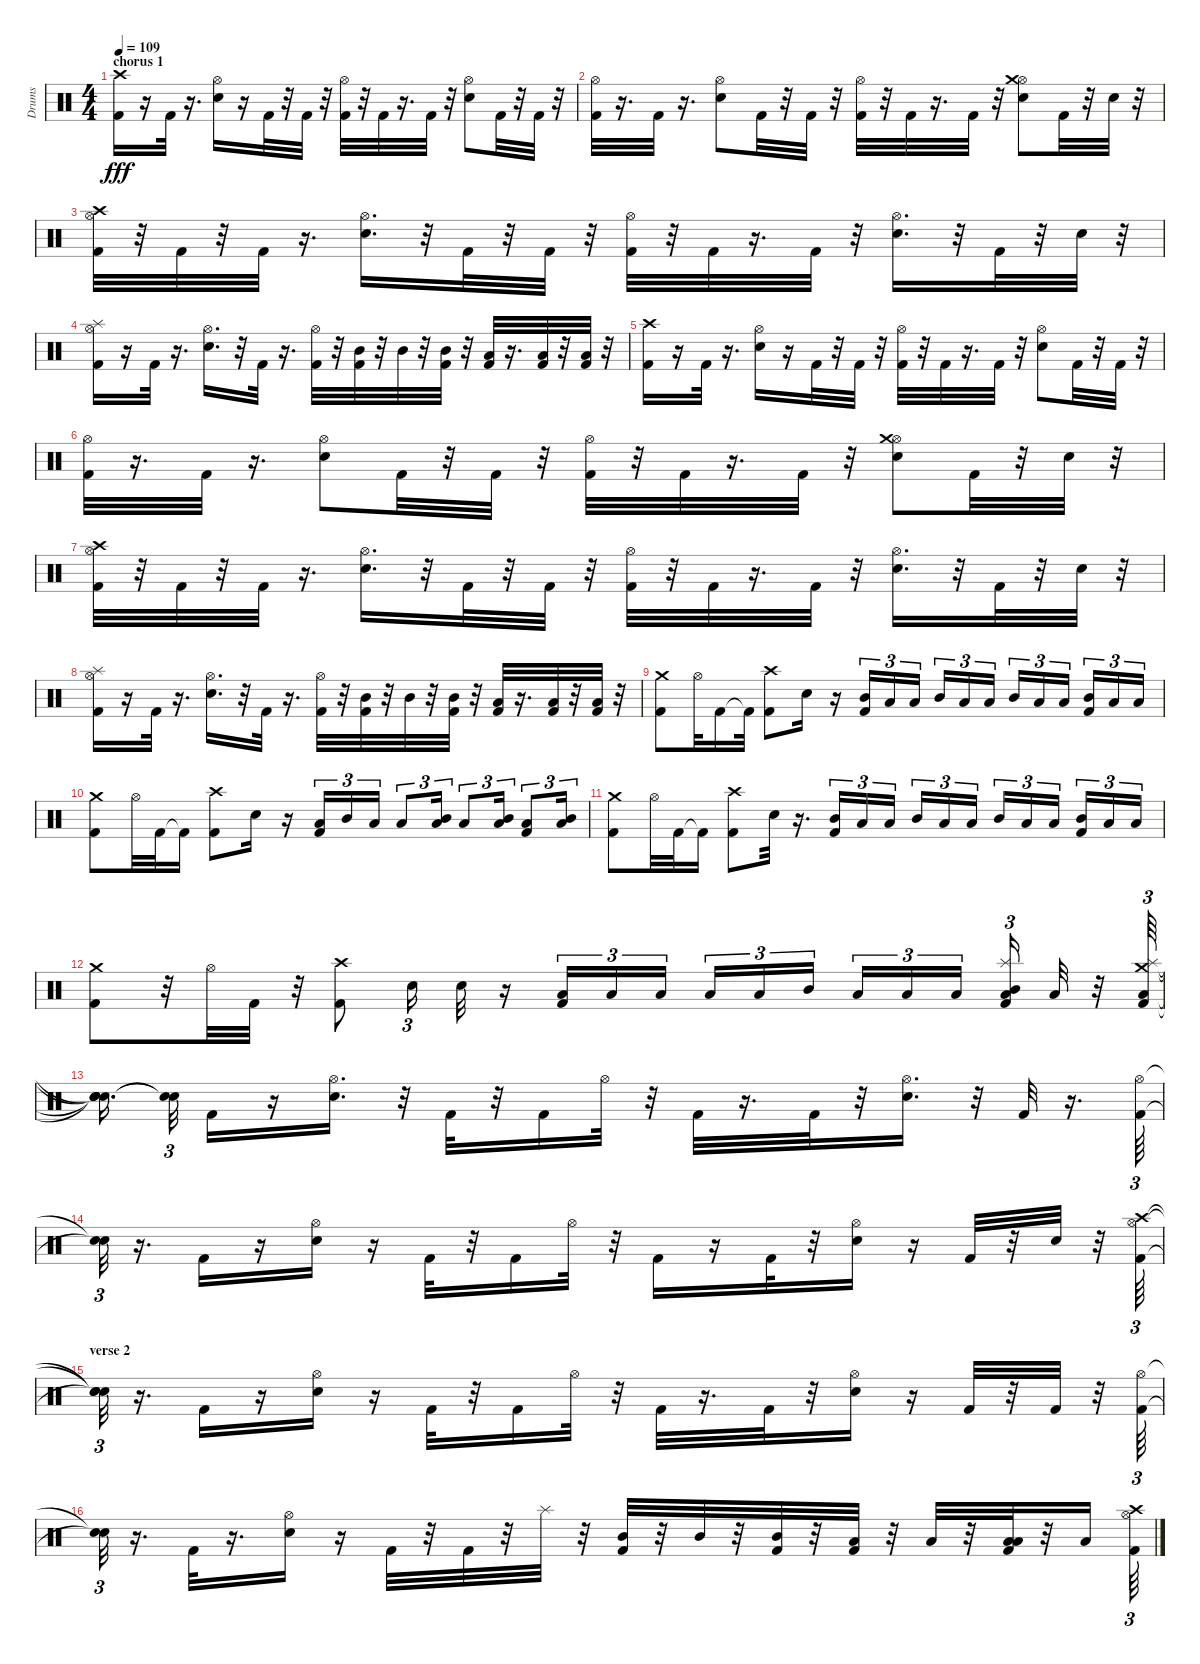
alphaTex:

\track ("Drums" "Drums") {instrument percussion}
\staff {score}
\articulation defaults
\ts (4 4)
\section ("" "chorus 1")
\tempo 109
\clef neutral
\ks c
("Kick (hit) 2" "Crash high (hit)").16{dy fff} r.16 "Kick (hit) 2".32 r.16{d} ("Snare (hit) 2" "Hi-Hat (open)").16 r.16 "Kick (hit) 2".32 r.32 "Kick (hit) 2".32 r.32 ("Kick (hit) 2" "Hi-Hat (open)").32 r.32 "Kick (hit) 2".32 r.16{d} "Kick (hit) 2".32 r.32 ("Snare (hit) 2" "Hi-Hat (open)").8 "Kick (hit) 2".32 r.32 "Kick (hit) 2".32 r.32 |
("Kick (hit) 2" "Hi-Hat (open)").32 r.16{d} "Kick (hit) 2".32 r.16{d} ("Snare (hit) 2" "Hi-Hat (open)").8 "Kick (hit) 2".32 r.32 "Kick (hit) 2".32 r.32 ("Kick (hit) 2" "Hi-Hat (open)").32 r.32 "Kick (hit) 2".32 r.16{d} "Kick (hit) 2".32 r.32 ("Snare (hit) 2" "Hi-Hat (open)" "Crash medium (hit)").8 "Kick (hit) 2".32 r.32 "Snare (hit) 2".32 r.32 |
("Kick (hit) 2" "Hi-Hat (open)" "Crash high (hit)").32 r.32 "Kick (hit) 2".32 r.32 "Kick (hit) 2".32 r.16{d} ("Snare (hit) 2" "Hi-Hat (open)").16{d} r.32 "Kick (hit) 2".32 r.32 "Kick (hit) 2".32 r.32 ("Kick (hit) 2" "Hi-Hat (open)").32 r.32 "Kick (hit) 2".32 r.16{d} "Kick (hit) 2".32 r.32 ("Snare (hit) 2" "Hi-Hat (open)").16{d} r.32 "Kick (hit) 2".32 r.32 "Snare (hit) 2".32 r.32 |
("Kick (hit) 2" "Hi-Hat (open)" "Splash (hit)").16 r.16 "Kick (hit) 2".32 r.16{d} ("Snare (hit) 2" "Hi-Hat (open)").16{d} r.32 "Kick (hit) 2".32 r.16{d} ("Kick (hit) 2" "Hi-Hat (open)").32 r.32 ("Kick (hit) 2" "Mid Tom (hit)").32 r.32 "Mid Tom (hit)".32 r.32 ("Kick (hit) 2" "Mid Tom (hit)").32 r.32 ("Kick (hit) 2" "Low Tom (hit)").32 r.16{d} ("Kick (hit) 2" "Low Floor Tom (hit)").32 r.32 ("Kick (hit) 2" "Low Floor Tom (hit)").32 r.32 |
("Kick (hit) 2" "Crash high (hit)").16 r.16 "Kick (hit) 2".32 r.16{d} ("Snare (hit) 2" "Hi-Hat (open)").16 r.16 "Kick (hit) 2".32 r.32 "Kick (hit) 2".32 r.32 ("Kick (hit) 2" "Hi-Hat (open)").32 r.32 "Kick (hit) 2".32 r.16{d} "Kick (hit) 2".32 r.32 ("Snare (hit) 2" "Hi-Hat (open)").8 "Kick (hit) 2".32 r.32 "Kick (hit) 2".32 r.32 |
("Kick (hit) 2" "Hi-Hat (open)").32 r.16{d} "Kick (hit) 2".32 r.16{d} ("Snare (hit) 2" "Hi-Hat (open)").8 "Kick (hit) 2".32 r.32 "Kick (hit) 2".32 r.32 ("Kick (hit) 2" "Hi-Hat (open)").32 r.32 "Kick (hit) 2".32 r.16{d} "Kick (hit) 2".32 r.32 ("Snare (hit) 2" "Hi-Hat (open)" "Crash medium (hit)").8 "Kick (hit) 2".32 r.32 "Snare (hit) 2".32 r.32 |
("Kick (hit) 2" "Hi-Hat (open)" "Crash high (hit)").32 r.32 "Kick (hit) 2".32 r.32 "Kick (hit) 2".32 r.16{d} ("Snare (hit) 2" "Hi-Hat (open)").16{d} r.32 "Kick (hit) 2".32 r.32 "Kick (hit) 2".32 r.32 ("Kick (hit) 2" "Hi-Hat (open)").32 r.32 "Kick (hit) 2".32 r.16{d} "Kick (hit) 2".32 r.32 ("Snare (hit) 2" "Hi-Hat (open)").16{d} r.32 "Kick (hit) 2".32 r.32 "Snare (hit) 2".32 r.32 |
("Kick (hit) 2" "Hi-Hat (open)" "Splash (hit)").16 r.16 "Kick (hit) 2".32 r.16{d} ("Snare (hit) 2" "Hi-Hat (open)").16{d} r.32 "Kick (hit) 2".32 r.16{d} ("Kick (hit) 2" "Hi-Hat (open)").32 r.32 ("Kick (hit) 2" "Mid Tom (hit)").32 r.32 "Mid Tom (hit)".32 r.32 ("Kick (hit) 2" "Mid Tom (hit)").32 r.32 ("Kick (hit) 2" "Low Tom (hit)").32 r.16{d} ("Kick (hit) 2" "Low Floor Tom (hit)").32 r.32 ("Kick (hit) 2" "Low Floor Tom (hit)").32 r.32 |
("Kick (hit) 2" "Crash medium (hit)").8 "Hi-Hat (open)".32 "Kick (hit) 2".16 "Kick (hit) 2"{t}.32 ("Kick (hit) 2" "Crash high (hit)").8 "Snare (hit) 2".16 r.16 ("Kick (hit) 2" "Mid Tom (hit)").16{tu (3 2)} "Low Tom (hit)".16{tu (3 2)} "Low Floor Tom (hit)".16{tu (3 2) beam splitsecondary} "Mid Tom (hit)".16{tu (3 2)} "Low Tom (hit)".16{tu (3 2)} "Low Floor Tom (hit)".16{tu (3 2)} "Mid Tom (hit)".16{tu (3 2)} "Low Tom (hit)".16{tu (3 2)} "Low Floor Tom (hit)".16{tu (3 2) beam splitsecondary} ("Kick (hit) 2" "Mid Tom (hit)").16{tu (3 2)} "Low Tom (hit)".16{tu (3 2)} "Low Floor Tom (hit)".16{tu (3 2)} |
("Kick (hit) 2" "Crash medium (hit)").8 "Hi-Hat (open)".32 "Kick (hit) 2".32 "Kick (hit) 2"{t}.16 ("Kick (hit) 2" "Crash high (hit)").8 "Snare (hit) 2".16 r.16 ("Kick (hit) 2" "Low Tom (hit)").16{tu (3 2)} "Mid Tom (hit)".16{tu (3 2)} "Low Floor Tom (hit)".16{tu (3 2)} "Low Tom (hit)".8{tu (3 2)} ("Low Floor Tom (hit)" "Mid Tom (hit)").16{tu (3 2)} "Low Tom (hit)".8{tu (3 2)} ("Low Floor Tom (hit)" "Mid Tom (hit)").16{tu (3 2)} ("Kick (hit) 2" "Low Tom (hit)").8{tu (3 2)} ("Low Floor Tom (hit)" "Mid Tom (hit)").16{tu (3 2)} |
("Kick (hit) 2" "Crash medium (hit)").8 "Hi-Hat (open)".32 "Kick (hit) 2".32 "Kick (hit) 2"{t}.16 ("Kick (hit) 2" "Crash high (hit)").8 "Snare (hit) 2".32 r.16{d} ("Kick (hit) 2" "Mid Tom (hit)").16{tu (3 2)} "Low Tom (hit)".16{tu (3 2)} "Low Floor Tom (hit)".16{tu (3 2) beam splitsecondary} "Mid Tom (hit)".16{tu (3 2)} "Low Tom (hit)".16{tu (3 2)} "Low Floor Tom (hit)".16{tu (3 2)} "Mid Tom (hit)".16{tu (3 2)} "Low Tom (hit)".16{tu (3 2)} "Low Floor Tom (hit)".16{tu (3 2) beam splitsecondary} ("Kick (hit) 2" "Mid Tom (hit)").16{tu (3 2)} "Low Tom (hit)".16{tu (3 2)} "Low Floor Tom (hit)".16{tu (3 2)} |
("Kick (hit) 2" "Crash medium (hit)").8 r.32 "Hi-Hat (open)".32 "Kick (hit) 2".32 r.32 ("Kick (hit) 2" "Crash high (hit)").8 "Snare (hit) 2".16{tu (3 2)} "Snare (hit) 2".32 r.16 ("Kick (hit) 2" "Low Tom (hit)").16{tu (3 2)} "Low Tom (hit)".16{tu (3 2)} "Low Tom (hit)".16{tu (3 2) beam splitsecondary} "Low Tom (hit)".16{tu (3 2)} "Low Floor Tom (hit)".16{tu (3 2)} "Mid Tom (hit)".16{tu (3 2)} "Low Tom (hit)".16{tu (3 2)} "Low Floor Tom (hit)".16{tu (3 2)} "Low Tom (hit)".16{tu (3 2) beam splitsecondary} ("Kick (hit) 2" "Low Floor Tom (hit)" "Mid Tom (hit)" "Splash (hit)").16{tu (3 2)} "Low Tom (hit)".32 r.32 ("Kick (hit) 2" "Low Floor Tom (hit)" "Crash medium (hit)" "Splash (hit)").64{tu (3 2)} |
("Snare (hit)"{t} "Snare (hit)"{t} "Snare (hit)"{t} "Snare (hit)"{t}).16{d beam splitsecondary} ("Snare (hit)"{t} "Snare (hit)"{t}).32{tu (3 2)} "Kick (hit) 2".16 r.16 ("Snare (hit) 2" "Hi-Hat (open)").16{d} r.32 "Kick (hit) 2".32 r.32 "Kick (hit) 2".16 "Hi-Hat (open)".32 r.32 "Kick (hit) 2".32 r.16{d} "Kick (hit) 2".32 r.32 ("Snare (hit) 2" "Hi-Hat (open)").16{d} r.32 "Kick (hit) 2".32 r.16{d} ("Kick (hit) 2" "Hi-Hat (open)").64{tu (3 2)} |
("Snare (hit)"{t} "Snare (hit)"{t}).32{tu (3 2)} r.16{d} "Kick (hit) 2".16 r.16 ("Snare (hit) 2" "Hi-Hat (open)").16 r.16 "Kick (hit) 2".32 r.32 "Kick (hit) 2".16 "Hi-Hat (open)".32 r.32 "Kick (hit) 2".16 r.16 "Kick (hit) 2".32 r.32 ("Snare (hit) 2" "Hi-Hat (open)").16 r.16 "Kick (hit) 2".32 r.32 "Snare (hit) 2".32 r.32 ("Kick (hit) 2" "Hi-Hat (open)" "Crash high (hit)").64{tu (3 2)} |
\section ("" "verse 2")
("Snare (hit)"{t} "Snare (hit)"{t} "Snare (hit)"{t}).32{tu (3 2)} r.16{d} "Kick (hit) 2".16 r.16 ("Snare (hit) 2" "Hi-Hat (open)").16 r.16 "Kick (hit) 2".32 r.32 "Kick (hit) 2".16 "Hi-Hat (open)".32 r.32 "Kick (hit) 2".32 r.16{d} "Kick (hit) 2".32 r.32 ("Snare (hit) 2" "Hi-Hat (open)").16 r.16 "Kick (hit) 2".32 r.32 "Kick (hit) 2".32 r.32 ("Kick (hit) 2" "Hi-Hat (open)").64{tu (3 2)} |
("Snare (hit)"{t} "Snare (hit)"{t}).32{tu (3 2)} r.16{d} "Kick (hit) 2".32 r.16{d} ("Snare (hit) 2" "Hi-Hat (open)").16 r.16 "Kick (hit) 2".32 r.32 "Kick (hit) 2".32 r.32 "Splash (hit)".32 r.32 ("Kick (hit) 2" "Mid Tom (hit)").32 r.32 "Mid Tom (hit)".32 r.32 ("Kick (hit) 2" "Mid Tom (hit)").32 r.32 ("Kick (hit) 2" "Low Tom (hit)").32 r.32 "Low Tom (hit)".32 r.32 ("Kick (hit) 2" "Low Floor Tom (hit)" "Low Floor Tom (hit)").32 r.32 "Low Floor Tom (hit)".16 ("Kick (hit) 2" "Hi-Hat (open)" "Crash high (hit)").64{tu (3 2)}
